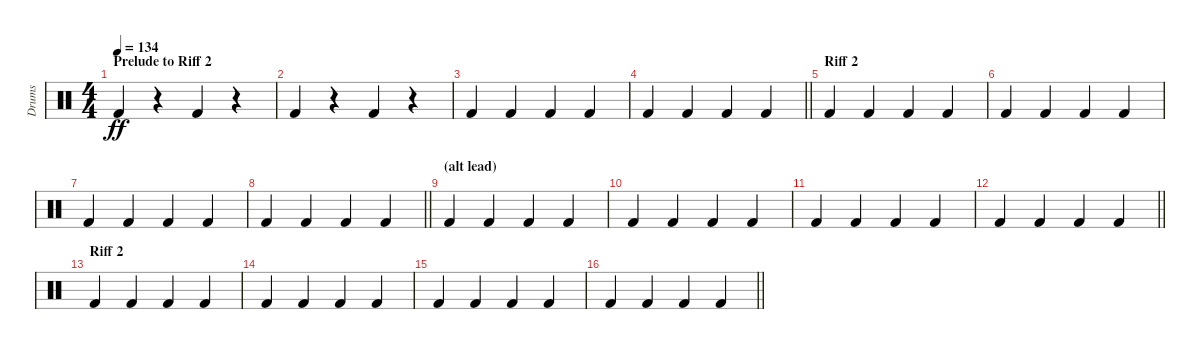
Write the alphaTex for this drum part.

\track ("Drums" "Drums") {instrument percussion}
\staff {score}
\articulation defaults
\ts (4 4)
\section ("" "Prelude to Riff 2")
\tempo 134
\clef neutral
\ks c "Kick (hit) 2".4{dy ff}
r.4 "Kick (hit) 2".4 r.4 |
"Kick (hit) 2".4 r.4 "Kick (hit) 2".4 r.4 |
"Kick (hit) 2".4 "Kick (hit) 2".4 "Kick (hit) 2".4 "Kick (hit) 2".4 |
\barLineRight lightlight "Kick (hit) 2".4 "Kick (hit) 2".4 "Kick (hit) 2".4 "Kick (hit) 2".4
|
\section ("" "Riff 2")
"Kick (hit) 2".4 "Kick (hit) 2".4 "Kick (hit) 2".4 "Kick (hit) 2".4 |
"Kick (hit) 2".4 "Kick (hit) 2".4 "Kick (hit) 2".4 "Kick (hit) 2".4 |
"Kick (hit) 2".4 "Kick (hit) 2".4 "Kick (hit) 2".4 "Kick (hit) 2".4 |
\barLineRight lightlight "Kick (hit) 2".4 "Kick (hit) 2".4 "Kick (hit) 2".4 "Kick (hit) 2".4
|
\section ("" "(alt lead)")
"Kick (hit) 2".4 "Kick (hit) 2".4 "Kick (hit) 2".4 "Kick (hit) 2".4 |
"Kick (hit) 2".4 "Kick (hit) 2".4 "Kick (hit) 2".4 "Kick (hit) 2".4 |
"Kick (hit) 2".4 "Kick (hit) 2".4 "Kick (hit) 2".4 "Kick (hit) 2".4 |
\barLineRight lightlight "Kick (hit) 2".4 "Kick (hit) 2".4 "Kick (hit) 2".4 "Kick (hit) 2".4
|
\section ("" "Riff 2")
"Kick (hit) 2".4 "Kick (hit) 2".4 "Kick (hit) 2".4 "Kick (hit) 2".4 |
"Kick (hit) 2".4 "Kick (hit) 2".4 "Kick (hit) 2".4 "Kick (hit) 2".4 |
"Kick (hit) 2".4 "Kick (hit) 2".4 "Kick (hit) 2".4 "Kick (hit) 2".4 |
\barLineRight lightlight "Kick (hit) 2".4 "Kick (hit) 2".4 "Kick (hit) 2".4 "Kick (hit) 2".4
